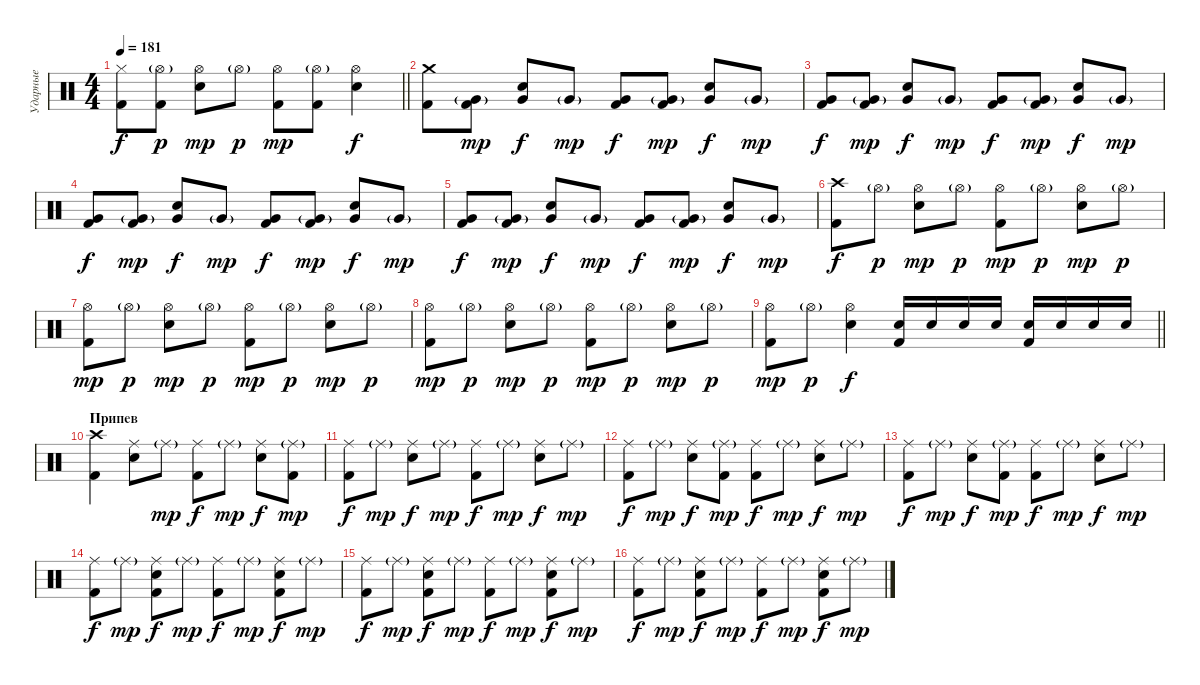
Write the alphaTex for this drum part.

\track ("Ударные" "Ударные") {instrument percussion}
\staff {score}
\articulation defaults
\ts (4 4)
\tempo 181
\clef neutral
\barLineRight lightlight
\ks c
("Hi-Hat (closed)" "Kick (hit) 2").8{dy f} ("Hi-Hat (open)"{g} "Kick (hit) 2").8{dy p} ("Hi-Hat (open)" "Electric Snare (hit)").8{dy mp} "Hi-Hat (open)"{g}.8{dy p} ("Hi-Hat (open)" "Kick (hit) 2").8{dy mp} ("Hi-Hat (open)"{g} "Kick (hit) 2").8 ("Hi-Hat (open)" "Electric Snare (hit)").4{dy f} |
("Crash medium (hit)" "Kick (hit) 2").8 ("Very Low Tom (hit)"{g} "Kick (hit) 2").8{dy mp} ("Very Low Tom (hit)" "Electric Snare (hit)").8{dy f} "Very Low Tom (hit)"{g}.8{dy mp} ("Very Low Tom (hit)" "Kick (hit) 2").8{dy f} ("Very Low Tom (hit)"{g} "Kick (hit) 2").8{dy mp} ("Very Low Tom (hit)" "Electric Snare (hit)").8{dy f} "Very Low Tom (hit)"{g}.8{dy mp} |
("Very Low Tom (hit)" "Kick (hit) 2").8{dy f} ("Very Low Tom (hit)"{g} "Kick (hit) 2").8{dy mp} ("Very Low Tom (hit)" "Electric Snare (hit)").8{dy f} "Very Low Tom (hit)"{g}.8{dy mp} ("Very Low Tom (hit)" "Kick (hit) 2").8{dy f} ("Very Low Tom (hit)"{g} "Kick (hit) 2").8{dy mp} ("Very Low Tom (hit)" "Electric Snare (hit)").8{dy f} "Very Low Tom (hit)"{g}.8{dy mp} |
("Very Low Tom (hit)" "Kick (hit) 2").8{dy f} ("Very Low Tom (hit)"{g} "Kick (hit) 2").8{dy mp} ("Very Low Tom (hit)" "Electric Snare (hit)").8{dy f} "Very Low Tom (hit)"{g}.8{dy mp} ("Very Low Tom (hit)" "Kick (hit) 2").8{dy f} ("Very Low Tom (hit)"{g} "Kick (hit) 2").8{dy mp} ("Very Low Tom (hit)" "Electric Snare (hit)").8{dy f} "Very Low Tom (hit)"{g}.8{dy mp} |
("Very Low Tom (hit)" "Kick (hit) 2").8{dy f} ("Very Low Tom (hit)"{g} "Kick (hit) 2").8{dy mp} ("Very Low Tom (hit)" "Electric Snare (hit)").8{dy f} "Very Low Tom (hit)"{g}.8{dy mp} ("Very Low Tom (hit)" "Kick (hit) 2").8{dy f} ("Very Low Tom (hit)"{g} "Kick (hit) 2").8{dy mp} ("Very Low Tom (hit)" "Electric Snare (hit)").8{dy f} "Very Low Tom (hit)"{g}.8{dy mp} |
("Crash high (hit)" "Kick (hit) 2").8{dy f} "Hi-Hat (open)"{g}.8{dy p} ("Hi-Hat (open)" "Electric Snare (hit)").8{dy mp} "Hi-Hat (open)"{g}.8{dy p} ("Hi-Hat (open)" "Kick (hit) 2").8{dy mp} "Hi-Hat (open)"{g}.8{dy p} ("Hi-Hat (open)" "Electric Snare (hit)").8{dy mp} "Hi-Hat (open)"{g}.8{dy p} |
("Hi-Hat (open)" "Kick (hit) 2").8{dy mp} "Hi-Hat (open)"{g}.8{dy p} ("Hi-Hat (open)" "Electric Snare (hit)").8{dy mp} "Hi-Hat (open)"{g}.8{dy p} ("Hi-Hat (open)" "Kick (hit) 2").8{dy mp} "Hi-Hat (open)"{g}.8{dy p} ("Hi-Hat (open)" "Electric Snare (hit)").8{dy mp} "Hi-Hat (open)"{g}.8{dy p} |
("Hi-Hat (open)" "Kick (hit) 2").8{dy mp} "Hi-Hat (open)"{g}.8{dy p} ("Hi-Hat (open)" "Electric Snare (hit)").8{dy mp} "Hi-Hat (open)"{g}.8{dy p} ("Hi-Hat (open)" "Kick (hit) 2").8{dy mp} "Hi-Hat (open)"{g}.8{dy p} ("Hi-Hat (open)" "Electric Snare (hit)").8{dy mp} "Hi-Hat (open)"{g}.8{dy p} |
\barLineRight lightlight
("Hi-Hat (open)" "Kick (hit) 2").8{dy mp} "Hi-Hat (open)"{g}.8{dy p} ("Hi-Hat (open)" "Electric Snare (hit)").4{dy f} ("Electric Snare (hit)" "Kick (hit) 2").16 "Electric Snare (hit)".16 "Electric Snare (hit)".16 "Electric Snare (hit)".16 ("Electric Snare (hit)" "Kick (hit) 2").16 "Electric Snare (hit)".16 "Electric Snare (hit)".16 "Electric Snare (hit)".16 |
\section ("" "Припев")
("Crash high (hit)" "Kick (hit) 2").4 ("Ride (middle)" "Electric Snare (hit)").8 "Ride (middle)"{g}.8{dy mp} ("Ride (middle)" "Kick (hit) 2").8{dy f} "Ride (middle)"{g}.8{dy mp} ("Ride (middle)" "Electric Snare (hit)").8{dy f} ("Ride (middle)"{g} "Kick (hit) 2").8{dy mp} |
("Ride (middle)" "Kick (hit) 2").8{dy f} "Ride (middle)"{g}.8{dy mp} ("Ride (middle)" "Electric Snare (hit)").8{dy f} "Ride (middle)"{g}.8{dy mp} ("Ride (middle)" "Kick (hit) 2").8{dy f} "Ride (middle)"{g}.8{dy mp} ("Ride (middle)" "Electric Snare (hit)").8{dy f} "Ride (middle)"{g}.8{dy mp} |
("Ride (middle)" "Kick (hit) 2").8{dy f} "Ride (middle)"{g}.8{dy mp} ("Ride (middle)" "Electric Snare (hit)").8{dy f} ("Ride (middle)"{g} "Kick (hit) 2").8{dy mp} ("Ride (middle)" "Kick (hit) 2").8{dy f} "Ride (middle)"{g}.8{dy mp} ("Ride (middle)" "Electric Snare (hit)").8{dy f} "Ride (middle)"{g}.8{dy mp} |
("Ride (middle)" "Kick (hit) 2").8{dy f} "Ride (middle)"{g}.8{dy mp} ("Ride (middle)" "Electric Snare (hit)").8{dy f} ("Ride (middle)"{g} "Kick (hit) 2").8{dy mp} ("Ride (middle)" "Kick (hit) 2").8{dy f} "Ride (middle)"{g}.8{dy mp} ("Ride (middle)" "Electric Snare (hit)").8{dy f} "Ride (middle)"{g}.8{dy mp} |
("Ride (middle)" "Kick (hit) 2").8{dy f} "Ride (middle)"{g}.8{dy mp} ("Ride (middle)" "Electric Snare (hit)" "Kick (hit) 2").8{dy f} "Ride (middle)"{g}.8{dy mp} ("Ride (middle)" "Kick (hit) 2").8{dy f} "Ride (middle)"{g}.8{dy mp} ("Ride (middle)" "Electric Snare (hit)" "Kick (hit) 2").8{dy f} "Ride (middle)"{g}.8{dy mp} |
("Ride (middle)" "Kick (hit) 2").8{dy f} "Ride (middle)"{g}.8{dy mp} ("Ride (middle)" "Electric Snare (hit)" "Kick (hit) 2").8{dy f} "Ride (middle)"{g}.8{dy mp} ("Ride (middle)" "Kick (hit) 2").8{dy f} "Ride (middle)"{g}.8{dy mp} ("Ride (middle)" "Electric Snare (hit)" "Kick (hit) 2").8{dy f} "Ride (middle)"{g}.8{dy mp} |
("Ride (middle)" "Kick (hit) 2").8{dy f} "Ride (middle)"{g}.8{dy mp} ("Ride (middle)" "Electric Snare (hit)" "Kick (hit) 2").8{dy f} "Ride (middle)"{g}.8{dy mp} ("Ride (middle)" "Kick (hit) 2").8{dy f} "Ride (middle)"{g}.8{dy mp} ("Ride (middle)" "Electric Snare (hit)" "Kick (hit) 2").8{dy f} "Ride (middle)"{g}.8{dy mp}
